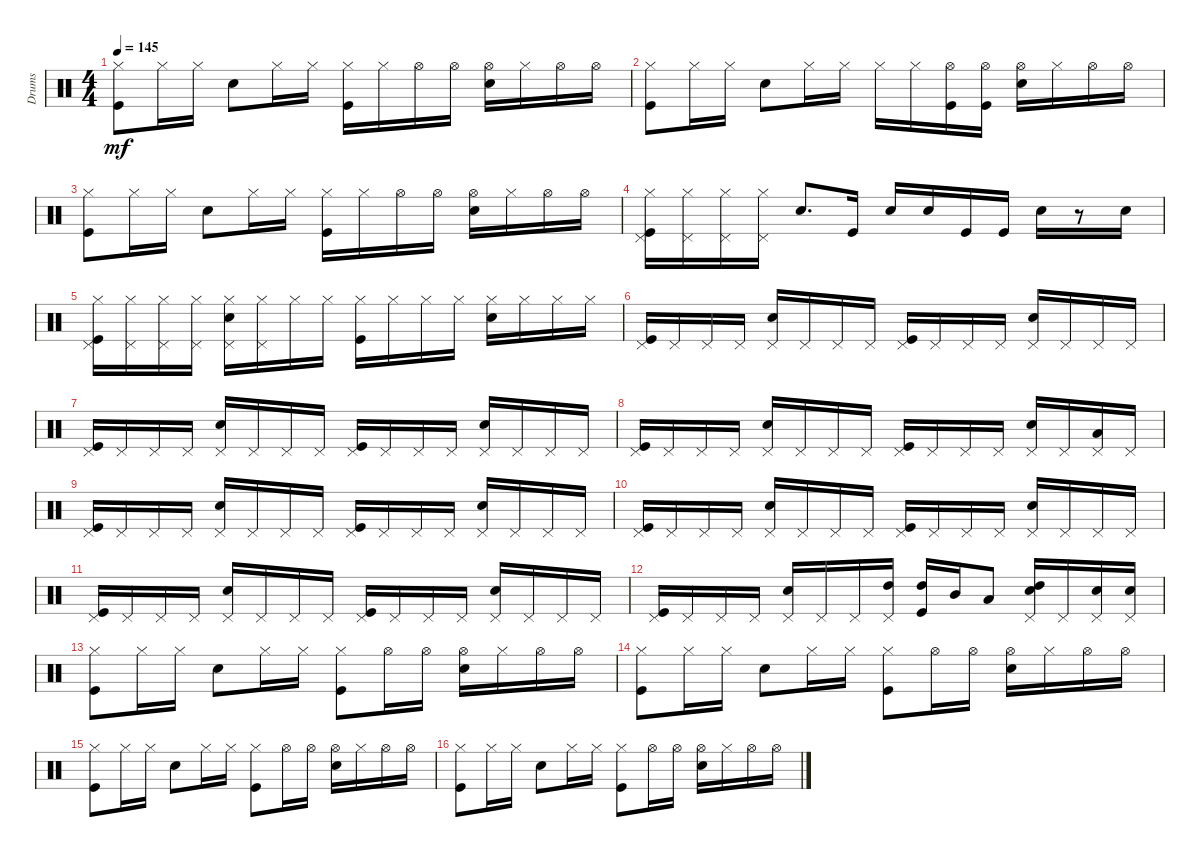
\track ("Drums" "Drums") {instrument percussion}
\staff {score}
\articulation defaults
\ts (4 4)
\tempo 145
\clef neutral
\ks c
("Kick (hit)" "Hi-Hat (closed)").8{dy mf} "Hi-Hat (closed)".16 "Hi-Hat (closed)".16 "Snare (hit) 2".8 "Hi-Hat (closed)".16 "Hi-Hat (closed)".16 ("Kick (hit)" "Hi-Hat (closed)").16 "Hi-Hat (closed)".16 "Hi-Hat (open)".16 "Hi-Hat (open)".16 ("Snare (hit) 2" "Hi-Hat (open)").16 "Hi-Hat (closed)".16 "Hi-Hat (open)".16 "Hi-Hat (open)".16 |
("Kick (hit)" "Hi-Hat (closed)").8 "Hi-Hat (closed)".16 "Hi-Hat (closed)".16 "Snare (hit) 2".8 "Hi-Hat (closed)".16 "Hi-Hat (closed)".16 "Hi-Hat (closed)".16 "Hi-Hat (closed)".16 ("Hi-Hat (open)" "Kick (hit)").16 ("Hi-Hat (open)" "Kick (hit)").16 ("Snare (hit) 2" "Hi-Hat (open)").16 "Hi-Hat (closed)".16 "Hi-Hat (open)".16 "Hi-Hat (open)".16 |
("Kick (hit)" "Hi-Hat (closed)").8 "Hi-Hat (closed)".16 "Hi-Hat (closed)".16 "Snare (hit) 2".8 "Hi-Hat (closed)".16 "Hi-Hat (closed)".16 ("Kick (hit)" "Hi-Hat (closed)").16 "Hi-Hat (closed)".16 "Hi-Hat (open)".16 "Hi-Hat (open)".16 ("Snare (hit) 2" "Hi-Hat (open)").16 "Hi-Hat (closed)".16 "Hi-Hat (open)".16 "Hi-Hat (open)".16 |
("Kick (hit)" "Hi-Hat (closed)" "Pedal Hi-Hat (hit)").16 ("Hi-Hat (closed)" "Pedal Hi-Hat (hit)").16 ("Hi-Hat (closed)" "Pedal Hi-Hat (hit)").16 ("Hi-Hat (closed)" "Pedal Hi-Hat (hit)").16 "Snare (hit) 2".8{d} "Kick (hit)".16 "Snare (hit) 2".16 "Snare (hit) 2".16 "Kick (hit)".16 "Kick (hit)".16 "Snare (hit) 2".16 r.8 "Snare (hit) 2".16 |
("Kick (hit)" "Pedal Hi-Hat (hit)" "Hi-Hat (closed)").16 ("Pedal Hi-Hat (hit)" "Hi-Hat (closed)").16 ("Pedal Hi-Hat (hit)" "Hi-Hat (closed)").16 ("Pedal Hi-Hat (hit)" "Hi-Hat (closed)").16 ("Snare (hit) 2" "Pedal Hi-Hat (hit)" "Hi-Hat (closed)").16 ("Pedal Hi-Hat (hit)" "Hi-Hat (closed)").16 "Hi-Hat (closed)".16 "Hi-Hat (closed)".16 ("Kick (hit)" "Hi-Hat (closed)").16 "Hi-Hat (closed)".16 "Hi-Hat (closed)".16 "Hi-Hat (closed)".16 ("Snare (hit) 2" "Hi-Hat (closed)").16 "Hi-Hat (closed)".16 "Hi-Hat (closed)".16 "Hi-Hat (closed)".16 |
("Kick (hit)" "Pedal Hi-Hat (hit)").16 "Pedal Hi-Hat (hit)".16 "Pedal Hi-Hat (hit)".16 "Pedal Hi-Hat (hit)".16 ("Snare (hit) 2" "Pedal Hi-Hat (hit)").16 "Pedal Hi-Hat (hit)".16 "Pedal Hi-Hat (hit)".16 "Pedal Hi-Hat (hit)".16 ("Kick (hit)" "Pedal Hi-Hat (hit)").16 "Pedal Hi-Hat (hit)".16 "Pedal Hi-Hat (hit)".16 "Pedal Hi-Hat (hit)".16 ("Snare (hit) 2" "Pedal Hi-Hat (hit)").16 "Pedal Hi-Hat (hit)".16 "Pedal Hi-Hat (hit)".16 "Pedal Hi-Hat (hit)".16 |
("Kick (hit)" "Pedal Hi-Hat (hit)").16 "Pedal Hi-Hat (hit)".16 "Pedal Hi-Hat (hit)".16 "Pedal Hi-Hat (hit)".16 ("Snare (hit) 2" "Pedal Hi-Hat (hit)").16 "Pedal Hi-Hat (hit)".16 "Pedal Hi-Hat (hit)".16 "Pedal Hi-Hat (hit)".16 ("Kick (hit)" "Pedal Hi-Hat (hit)").16 "Pedal Hi-Hat (hit)".16 "Pedal Hi-Hat (hit)".16 "Pedal Hi-Hat (hit)".16 ("Snare (hit) 2" "Pedal Hi-Hat (hit)").16 "Pedal Hi-Hat (hit)".16 "Pedal Hi-Hat (hit)".16 "Pedal Hi-Hat (hit)".16 |
("Kick (hit)" "Pedal Hi-Hat (hit)").16 "Pedal Hi-Hat (hit)".16 "Pedal Hi-Hat (hit)".16 "Pedal Hi-Hat (hit)".16 ("Snare (hit) 2" "Pedal Hi-Hat (hit)").16 "Pedal Hi-Hat (hit)".16 "Pedal Hi-Hat (hit)".16 "Pedal Hi-Hat (hit)".16 ("Kick (hit)" "Pedal Hi-Hat (hit)").16 "Pedal Hi-Hat (hit)".16 "Pedal Hi-Hat (hit)".16 "Pedal Hi-Hat (hit)".16 ("Pedal Hi-Hat (hit)" "Snare (hit) 2").16 "Pedal Hi-Hat (hit)".16 ("Pedal Hi-Hat (hit)" "Low Floor Tom (hit)").16 "Pedal Hi-Hat (hit)".16 |
("Kick (hit)" "Pedal Hi-Hat (hit)").16 "Pedal Hi-Hat (hit)".16 "Pedal Hi-Hat (hit)".16 "Pedal Hi-Hat (hit)".16 ("Snare (hit) 2" "Pedal Hi-Hat (hit)").16 "Pedal Hi-Hat (hit)".16 "Pedal Hi-Hat (hit)".16 "Pedal Hi-Hat (hit)".16 ("Kick (hit)" "Pedal Hi-Hat (hit)").16 "Pedal Hi-Hat (hit)".16 "Pedal Hi-Hat (hit)".16 "Pedal Hi-Hat (hit)".16 ("Snare (hit) 2" "Pedal Hi-Hat (hit)").16 "Pedal Hi-Hat (hit)".16 "Pedal Hi-Hat (hit)".16 "Pedal Hi-Hat (hit)".16 |
("Kick (hit)" "Pedal Hi-Hat (hit)").16 "Pedal Hi-Hat (hit)".16 "Pedal Hi-Hat (hit)".16 "Pedal Hi-Hat (hit)".16 ("Snare (hit) 2" "Pedal Hi-Hat (hit)").16 "Pedal Hi-Hat (hit)".16 "Pedal Hi-Hat (hit)".16 "Pedal Hi-Hat (hit)".16 ("Kick (hit)" "Pedal Hi-Hat (hit)").16 "Pedal Hi-Hat (hit)".16 "Pedal Hi-Hat (hit)".16 "Pedal Hi-Hat (hit)".16 ("Snare (hit) 2" "Pedal Hi-Hat (hit)").16 "Pedal Hi-Hat (hit)".16 "Pedal Hi-Hat (hit)".16 "Pedal Hi-Hat (hit)".16 |
("Kick (hit)" "Pedal Hi-Hat (hit)").16 "Pedal Hi-Hat (hit)".16 "Pedal Hi-Hat (hit)".16 "Pedal Hi-Hat (hit)".16 ("Snare (hit) 2" "Pedal Hi-Hat (hit)").16 "Pedal Hi-Hat (hit)".16 "Pedal Hi-Hat (hit)".16 "Pedal Hi-Hat (hit)".16 ("Kick (hit)" "Pedal Hi-Hat (hit)").16 "Pedal Hi-Hat (hit)".16 "Pedal Hi-Hat (hit)".16 "Pedal Hi-Hat (hit)".16 ("Snare (hit) 2" "Pedal Hi-Hat (hit)").16 "Pedal Hi-Hat (hit)".16 "Pedal Hi-Hat (hit)".16 "Pedal Hi-Hat (hit)".16 |
("Kick (hit)" "Pedal Hi-Hat (hit)").16 "Pedal Hi-Hat (hit)".16 "Pedal Hi-Hat (hit)".16 "Pedal Hi-Hat (hit)".16 ("Snare (hit) 2" "Pedal Hi-Hat (hit)").16 "Pedal Hi-Hat (hit)".16 "Pedal Hi-Hat (hit)".16 ("High Tom (hit)" "Pedal Hi-Hat (hit)").16 ("High Tom (hit)" "Kick (hit)").16 "Mid Tom (hit)".16 "Low Tom (hit)".8 ("High Tom (hit)" "Snare (hit) 2" "Pedal Hi-Hat (hit)").16 "Pedal Hi-Hat (hit)".16 ("Snare (hit) 2" "Pedal Hi-Hat (hit)").16 ("Snare (hit) 2" "Pedal Hi-Hat (hit)").16 |
("Kick (hit)" "Hi-Hat (closed)").8 "Hi-Hat (closed)".16 "Hi-Hat (closed)".16 "Snare (hit) 2".8 "Hi-Hat (closed)".16 "Hi-Hat (closed)".16 ("Kick (hit)" "Hi-Hat (closed)").8 "Hi-Hat (open)".16 "Hi-Hat (open)".16 ("Snare (hit) 2" "Hi-Hat (open)").16 "Hi-Hat (closed)".16 "Hi-Hat (open)".16 "Hi-Hat (open)".16 |
("Kick (hit)" "Hi-Hat (closed)").8 "Hi-Hat (closed)".16 "Hi-Hat (closed)".16 "Snare (hit) 2".8 "Hi-Hat (closed)".16 "Hi-Hat (closed)".16 ("Kick (hit)" "Hi-Hat (closed)").8 "Hi-Hat (open)".16 "Hi-Hat (open)".16 ("Snare (hit) 2" "Hi-Hat (open)").16 "Hi-Hat (closed)".16 "Hi-Hat (open)".16 "Hi-Hat (open)".16 |
("Kick (hit)" "Hi-Hat (closed)").8 "Hi-Hat (closed)".16 "Hi-Hat (closed)".16 "Snare (hit) 2".8 "Hi-Hat (closed)".16 "Hi-Hat (closed)".16 ("Kick (hit)" "Hi-Hat (closed)").8 "Hi-Hat (open)".16 "Hi-Hat (open)".16 ("Snare (hit) 2" "Hi-Hat (open)").16 "Hi-Hat (closed)".16 "Hi-Hat (open)".16 "Hi-Hat (open)".16 |
("Kick (hit)" "Hi-Hat (closed)").8 "Hi-Hat (closed)".16 "Hi-Hat (closed)".16 "Snare (hit) 2".8 "Hi-Hat (closed)".16 "Hi-Hat (closed)".16 ("Kick (hit)" "Hi-Hat (closed)").8 "Hi-Hat (open)".16 "Hi-Hat (open)".16 ("Snare (hit) 2" "Hi-Hat (open)").16 "Hi-Hat (closed)".16 "Hi-Hat (open)".16 "Hi-Hat (open)".16
